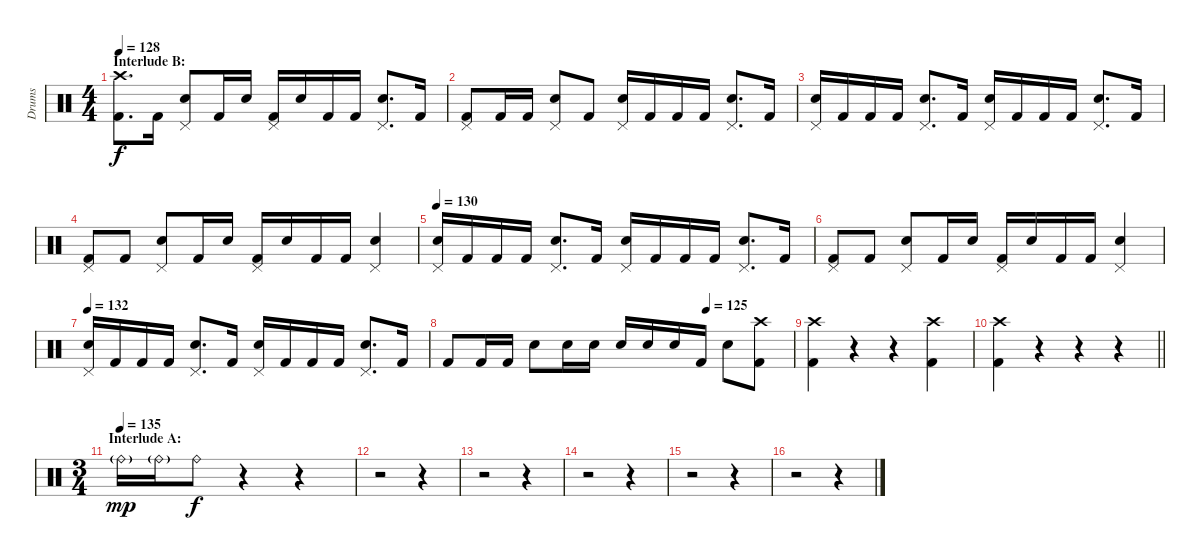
\track ("Drums" "Drums") {instrument percussion}
\staff {score}
\articulation defaults
\ts (4 4)
\section ("" "Interlude B:")
\tempo 128
\clef neutral
\ks c
("Crash high (hit)" "Kick (hit) 2").8{d dy f} "Kick (hit) 2".16 ("Pedal Hi-Hat (hit)" "Electric Snare (hit)").8 "Kick (hit) 2".16 "Electric Snare (hit)".16 ("Pedal Hi-Hat (hit)" "Kick (hit) 2").16 "Electric Snare (hit)".16 "Kick (hit) 2".16 "Kick (hit) 2".16 ("Pedal Hi-Hat (hit)" "Electric Snare (hit)").8{d} "Kick (hit) 2".16 |
("Pedal Hi-Hat (hit)" "Kick (hit) 2").8 "Kick (hit) 2".16 "Kick (hit) 2".16 ("Pedal Hi-Hat (hit)" "Electric Snare (hit)").8 "Kick (hit) 2".8 ("Pedal Hi-Hat (hit)" "Electric Snare (hit)").16 "Kick (hit) 2".16 "Kick (hit) 2".16 "Kick (hit) 2".16 ("Pedal Hi-Hat (hit)" "Electric Snare (hit)").8{d} "Kick (hit) 2".16 |
("Pedal Hi-Hat (hit)" "Electric Snare (hit)").16 "Kick (hit) 2".16 "Kick (hit) 2".16 "Kick (hit) 2".16 ("Pedal Hi-Hat (hit)" "Electric Snare (hit)").8{d} "Kick (hit) 2".16 ("Pedal Hi-Hat (hit)" "Electric Snare (hit)").16 "Kick (hit) 2".16 "Kick (hit) 2".16 "Kick (hit) 2".16 ("Pedal Hi-Hat (hit)" "Electric Snare (hit)").8{d} "Kick (hit) 2".16 |
("Pedal Hi-Hat (hit)" "Kick (hit) 2").8 "Kick (hit) 2".8 ("Pedal Hi-Hat (hit)" "Electric Snare (hit)").8 "Kick (hit) 2".16 "Electric Snare (hit)".16 ("Pedal Hi-Hat (hit)" "Kick (hit) 2").16 "Electric Snare (hit)".16 "Kick (hit) 2".16 "Kick (hit) 2".16 ("Pedal Hi-Hat (hit)" "Electric Snare (hit)").4 |
\tempo 130
("Pedal Hi-Hat (hit)" "Electric Snare (hit)").16 "Kick (hit) 2".16 "Kick (hit) 2".16 "Kick (hit) 2".16 ("Pedal Hi-Hat (hit)" "Electric Snare (hit)").8{d} "Kick (hit) 2".16 ("Pedal Hi-Hat (hit)" "Electric Snare (hit)").16 "Kick (hit) 2".16 "Kick (hit) 2".16 "Kick (hit) 2".16 ("Pedal Hi-Hat (hit)" "Electric Snare (hit)").8{d} "Kick (hit) 2".16 |
("Pedal Hi-Hat (hit)" "Kick (hit) 2").8 "Kick (hit) 2".8 ("Pedal Hi-Hat (hit)" "Electric Snare (hit)").8 "Kick (hit) 2".16 "Electric Snare (hit)".16 ("Pedal Hi-Hat (hit)" "Kick (hit) 2").16 "Electric Snare (hit)".16 "Kick (hit) 2".16 "Kick (hit) 2".16 ("Pedal Hi-Hat (hit)" "Electric Snare (hit)").4 |
\tempo 132
("Pedal Hi-Hat (hit)" "Electric Snare (hit)").16 "Kick (hit) 2".16 "Kick (hit) 2".16 "Kick (hit) 2".16 ("Pedal Hi-Hat (hit)" "Electric Snare (hit)").8{d} "Kick (hit) 2".16 ("Pedal Hi-Hat (hit)" "Electric Snare (hit)").16 "Kick (hit) 2".16 "Kick (hit) 2".16 "Kick (hit) 2".16 ("Pedal Hi-Hat (hit)" "Electric Snare (hit)").8{d} "Kick (hit) 2".16 |
\tempo (125 0.75)
"Kick (hit) 2".8 "Kick (hit) 2".16 "Kick (hit) 2".16 "Electric Snare (hit)".8 "Electric Snare (hit)".16 "Electric Snare (hit)".16 "Electric Snare (hit)".16 "Electric Snare (hit)".16 "Electric Snare (hit)".16 "Kick (hit) 2".16 "Electric Snare (hit)".8 ("Crash high (hit)" "Kick (hit) 2").8 |
("Crash high (hit)" "Kick (hit) 2").4 r.4 r.4 ("Crash high (hit)" "Kick (hit) 2").4 |
\barLineRight lightlight
("Crash high (hit)" "Kick (hit) 2").4 r.4 r.4 r.4 |
\ts (3 4)
\section ("" "Interlude A:")
\tempo (135)
"Ride (bell)"{g}.16{dy mp} "Ride (bell)"{g}.16 "Ride (bell)".8{dy f} r.4 r.4 |
r.2 r.4 |
r.2 r.4 |
r.2 r.4 |
r.2 r.4 |
r.2 r.4
